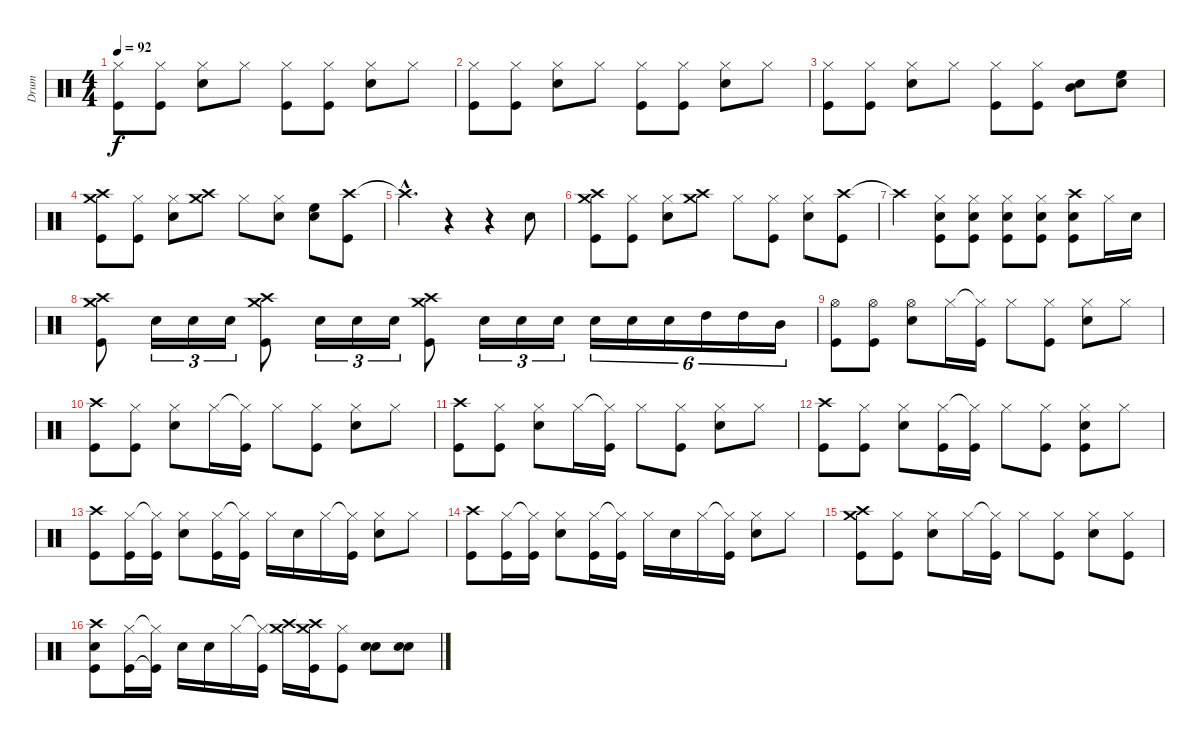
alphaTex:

\track ("Drum" "Drum") {instrument percussion}
\staff {score}
\articulation defaults
\ts (4 4)
\tempo 92
\clef neutral
\ks c
("Hi-Hat (closed)" "Kick (hit)").8{dy f} ("Hi-Hat (closed)" "Kick (hit)").8 ("Hi-Hat (closed)" "Snare (hit) 2").8 "Hi-Hat (closed)".8 ("Hi-Hat (closed)" "Kick (hit)").8 ("Hi-Hat (closed)" "Kick (hit)").8 ("Hi-Hat (closed)" "Snare (hit) 2").8 "Hi-Hat (closed)".8 |
("Hi-Hat (closed)" "Kick (hit)").8 ("Hi-Hat (closed)" "Kick (hit)").8 ("Hi-Hat (closed)" "Snare (hit) 2").8 "Hi-Hat (closed)".8 ("Hi-Hat (closed)" "Kick (hit)").8 ("Hi-Hat (closed)" "Kick (hit)").8 ("Hi-Hat (closed)" "Snare (hit) 2").8 "Hi-Hat (closed)".8 |
("Hi-Hat (closed)" "Kick (hit)").8 ("Hi-Hat (closed)" "Kick (hit)").8 ("Hi-Hat (closed)" "Snare (hit) 2").8 "Hi-Hat (closed)".8 ("Hi-Hat (closed)" "Kick (hit)").8 ("Hi-Hat (closed)" "Kick (hit)").8 ("Mid Tom (hit)" "Snare (hit) 2").8 ("High Floor Tom (hit)" "Snare (hit) 2").8 |
("Crash high (hit)" "Crash medium (hit)" "Kick (hit)").8 ("Hi-Hat (closed)" "Kick (hit)").8 ("Hi-Hat (closed)" "Snare (hit) 2").8 ("Crash high (hit)" "Crash medium (hit)").8 "Hi-Hat (closed)".8 ("Hi-Hat (closed)" "Snare (hit) 2").8 ("High Floor Tom (hit)" "Snare (hit) 2").8 ("Crash high (hit)" "Kick (hit)").8 |
"Crash high (hit)"{hac t}.4{d} r.4 r.4 "Snare (hit) 2".8 |
("Crash high (hit)" "Crash medium (hit)" "Kick (hit)").8 ("Hi-Hat (closed)" "Kick (hit)").8 ("Hi-Hat (closed)" "Snare (hit) 2").8 ("Crash high (hit)" "Crash medium (hit)").8 "Hi-Hat (closed)".8 ("Hi-Hat (closed)" "Kick (hit)").8 ("Hi-Hat (closed)" "Snare (hit) 2").8 ("Crash high (hit)" "Kick (hit)").8 |
"Crash high (hit)"{t}.4 ("Hi-Hat (closed)" "Snare (hit) 2" "Kick (hit)").8 ("Hi-Hat (closed)" "Snare (hit) 2" "Kick (hit)").8 ("Hi-Hat (closed)" "Snare (hit) 2" "Kick (hit)").8 ("Hi-Hat (closed)" "Snare (hit) 2" "Kick (hit)").8 ("Crash high (hit)" "Snare (hit) 2" "Kick (hit)").8 "Hi-Hat (closed)".16 "Snare (hit) 2".16 |
("Crash medium (hit)" "Crash high (hit)" "Kick (hit)").8 "Snare (hit) 2".16{tu (3 2)} "Snare (hit) 2".16{tu (3 2)} "Snare (hit) 2".16{tu (3 2)} ("Crash medium (hit)" "Crash high (hit)" "Kick (hit)").8 "Snare (hit) 2".16{tu (3 2)} "Snare (hit) 2".16{tu (3 2)} "Snare (hit) 2".16{tu (3 2)} ("Crash medium (hit)" "Crash high (hit)" "Kick (hit)").8 "Snare (hit) 2".16{tu (3 2)} "Snare (hit) 2".16{tu (3 2)} "Snare (hit) 2".16{tu (3 2)} "Snare (hit) 2".16{tu (6 4)} "Snare (hit) 2".16{tu (6 4)} "Snare (hit) 2".16{tu (6 4)} "High Tom (hit)".16{tu (6 4)} "High Tom (hit)".16{tu (6 4)} "Mid Tom (hit)".16{tu (6 4)} |
("Hi-Hat (open)" "Kick (hit)").8 ("Hi-Hat (open)" "Kick (hit)").8 ("Hi-Hat (open)" "Snare (hit) 2").8 "Hi-Hat (closed)".16 ("Hi-Hat (closed)"{t} "Kick (hit)").16 "Hi-Hat (closed)".8 ("Hi-Hat (closed)" "Kick (hit)").8 ("Hi-Hat (closed)" "Snare (hit) 2").8 "Hi-Hat (closed)".8 |
("Crash high (hit)" "Kick (hit)").8 ("Hi-Hat (closed)" "Kick (hit)").8 ("Hi-Hat (closed)" "Snare (hit) 2").8 "Hi-Hat (closed)".16 ("Hi-Hat (closed)"{t} "Kick (hit)").16 "Hi-Hat (closed)".8 ("Hi-Hat (closed)" "Kick (hit)").8 ("Hi-Hat (closed)" "Snare (hit) 2").8 "Hi-Hat (closed)".8 |
("Crash high (hit)" "Kick (hit)").8 ("Hi-Hat (closed)" "Kick (hit)").8 ("Hi-Hat (closed)" "Snare (hit) 2").8 "Hi-Hat (closed)".16 ("Hi-Hat (closed)"{t} "Kick (hit)").16 "Hi-Hat (closed)".8 ("Hi-Hat (closed)" "Kick (hit)").8 ("Hi-Hat (closed)" "Snare (hit) 2").8 "Hi-Hat (closed)".8 |
("Crash high (hit)" "Kick (hit)").8 ("Hi-Hat (closed)" "Kick (hit)").8 ("Hi-Hat (closed)" "Snare (hit) 2").8 ("Hi-Hat (closed)" "Kick (hit)").16 ("Hi-Hat (closed)"{t} "Kick (hit)").16 "Hi-Hat (closed)".8 ("Hi-Hat (closed)" "Kick (hit)").8 ("Hi-Hat (closed)" "Snare (hit) 2" "Kick (hit)").8 "Hi-Hat (closed)".8 |
("Crash high (hit)" "Kick (hit)").8 ("Hi-Hat (closed)" "Kick (hit)").16 ("Hi-Hat (closed)"{t} "Kick (hit)").16 ("Hi-Hat (closed)" "Snare (hit) 2").8 ("Hi-Hat (closed)" "Kick (hit)").16 ("Hi-Hat (closed)"{t} "Kick (hit)").16 "Hi-Hat (closed)".16 "Snare (hit) 2".16 "Hi-Hat (closed)".16 ("Hi-Hat (closed)"{t} "Kick (hit)").16 ("Hi-Hat (closed)" "Snare (hit) 2").8 "Hi-Hat (closed)".8 |
("Crash high (hit)" "Kick (hit)").8 ("Hi-Hat (closed)" "Kick (hit)").16 ("Hi-Hat (closed)"{t} "Kick (hit)").16 ("Hi-Hat (closed)" "Snare (hit) 2").8 ("Hi-Hat (closed)" "Kick (hit)").16 ("Hi-Hat (closed)"{t} "Kick (hit)").16 "Hi-Hat (closed)".16 "Snare (hit) 2".16 "Hi-Hat (closed)".16 ("Hi-Hat (closed)"{t} "Kick (hit)").16 ("Hi-Hat (closed)" "Snare (hit) 2").8 "Hi-Hat (closed)".8 |
("Crash high (hit)" "Crash medium (hit)" "Kick (hit)").8 ("Hi-Hat (closed)" "Kick (hit)").8 ("Hi-Hat (closed)" "Snare (hit) 2").8 "Hi-Hat (closed)".16 ("Hi-Hat (closed)"{t} "Kick (hit)").16 "Hi-Hat (closed)".8 ("Hi-Hat (closed)" "Kick (hit)").8 ("Hi-Hat (closed)" "Snare (hit) 2").8 ("Hi-Hat (closed)" "Kick (hit)").8 |
("Crash high (hit)" "Snare (hit) 2" "Kick (hit)").8 ("Hi-Hat (closed)" "Kick (hit)").16 ("Hi-Hat (closed)"{t} "Kick (hit)"{t}).16 "Snare (hit) 2".16 "Snare (hit) 2".16 "Hi-Hat (closed)".16 ("Hi-Hat (closed)"{t} "Kick (hit)").16 ("Crash high (hit)" "Crash medium (hit)").16 ("Crash high (hit)"{t} "Crash medium (hit)"{t} "Kick (hit)").16 ("Hi-Hat (closed)" "Kick (hit)").8 ("Snare (hit) 2" "Snare (hit) 2").8 ("Snare (hit) 2" "Snare (hit) 2").8
